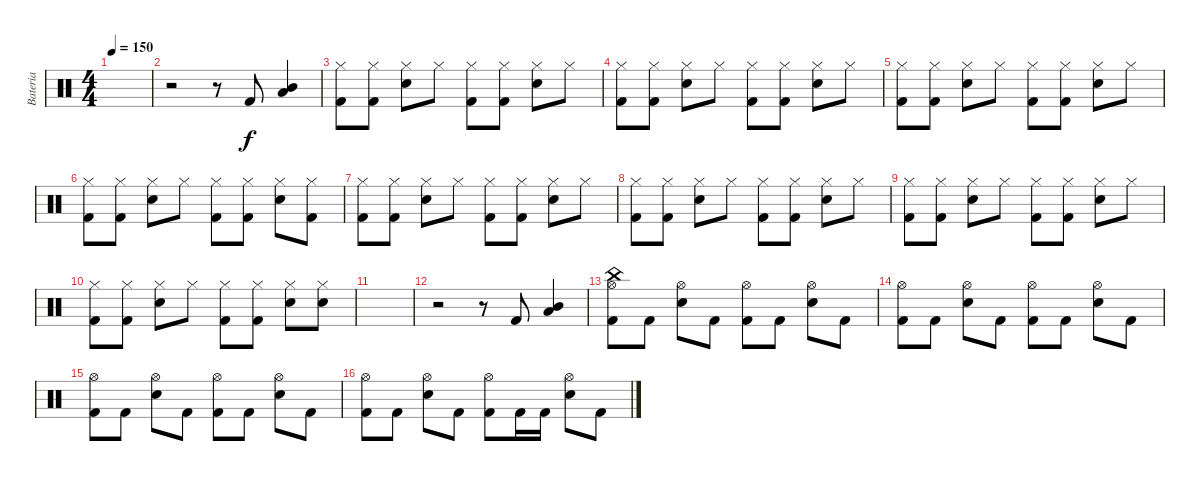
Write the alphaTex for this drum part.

\track ("Bateria" "Bateria") {instrument percussion}
\staff {score}
\articulation defaults
\ts (4 4)
\tempo 150
\clef neutral
\ks c
|
r.2 r.8 "Kick (hit) 2".8 ("Low Tom (hit)" "Mid Tom (hit)").4 |
("Kick (hit) 2" "Hi-Hat (closed)").8 ("Kick (hit) 2" "Hi-Hat (closed)").8 ("Electric Snare (hit)" "Hi-Hat (closed)").8 "Hi-Hat (closed)".8 ("Kick (hit) 2" "Hi-Hat (closed)").8 ("Kick (hit) 2" "Hi-Hat (closed)").8 ("Electric Snare (hit)" "Hi-Hat (closed)").8 "Hi-Hat (closed)".8 |
("Kick (hit) 2" "Hi-Hat (closed)").8 ("Kick (hit) 2" "Hi-Hat (closed)").8 ("Electric Snare (hit)" "Hi-Hat (closed)").8 "Hi-Hat (closed)".8 ("Kick (hit) 2" "Hi-Hat (closed)").8 ("Kick (hit) 2" "Hi-Hat (closed)").8 ("Electric Snare (hit)" "Hi-Hat (closed)").8 "Hi-Hat (closed)".8 |
("Kick (hit) 2" "Hi-Hat (closed)").8 ("Kick (hit) 2" "Hi-Hat (closed)").8 ("Electric Snare (hit)" "Hi-Hat (closed)").8 "Hi-Hat (closed)".8 ("Kick (hit) 2" "Hi-Hat (closed)").8 ("Kick (hit) 2" "Hi-Hat (closed)").8 ("Electric Snare (hit)" "Hi-Hat (closed)").8 "Hi-Hat (closed)".8 |
("Kick (hit) 2" "Hi-Hat (closed)").8 ("Kick (hit) 2" "Hi-Hat (closed)").8 ("Electric Snare (hit)" "Hi-Hat (closed)").8 "Hi-Hat (closed)".8 ("Kick (hit) 2" "Hi-Hat (closed)").8 ("Kick (hit) 2" "Hi-Hat (closed)").8 ("Electric Snare (hit)" "Hi-Hat (closed)").8 ("Kick (hit) 2" "Hi-Hat (closed)").8 |
("Kick (hit) 2" "Hi-Hat (closed)").8 ("Kick (hit) 2" "Hi-Hat (closed)").8 ("Electric Snare (hit)" "Hi-Hat (closed)").8 "Hi-Hat (closed)".8 ("Kick (hit) 2" "Hi-Hat (closed)").8 ("Kick (hit) 2" "Hi-Hat (closed)").8 ("Electric Snare (hit)" "Hi-Hat (closed)").8 "Hi-Hat (closed)".8 |
("Kick (hit) 2" "Hi-Hat (closed)").8 ("Kick (hit) 2" "Hi-Hat (closed)").8 ("Electric Snare (hit)" "Hi-Hat (closed)").8 "Hi-Hat (closed)".8 ("Kick (hit) 2" "Hi-Hat (closed)").8 ("Kick (hit) 2" "Hi-Hat (closed)").8 ("Electric Snare (hit)" "Hi-Hat (closed)").8 "Hi-Hat (closed)".8 |
("Kick (hit) 2" "Hi-Hat (closed)").8 ("Kick (hit) 2" "Hi-Hat (closed)").8 ("Electric Snare (hit)" "Hi-Hat (closed)").8 "Hi-Hat (closed)".8 ("Kick (hit) 2" "Hi-Hat (closed)").8 ("Kick (hit) 2" "Hi-Hat (closed)").8 ("Electric Snare (hit)" "Hi-Hat (closed)").8 "Hi-Hat (closed)".8 |
("Kick (hit) 2" "Hi-Hat (closed)").8 ("Kick (hit) 2" "Hi-Hat (closed)").8 ("Electric Snare (hit)" "Hi-Hat (closed)").8 "Hi-Hat (closed)".8 ("Kick (hit) 2" "Hi-Hat (closed)").8 ("Kick (hit) 2" "Hi-Hat (closed)").8 ("Electric Snare (hit)" "Hi-Hat (closed)").8 ("Electric Snare (hit)" "Hi-Hat (closed)").8 |
|
r.2 r.8 "Kick (hit) 2".8 ("Low Tom (hit)" "Mid Tom (hit)").4 |
("Kick (hit) 2" "China (hit)" "Hi-Hat (open)").8 "Kick (hit) 2".8 ("Electric Snare (hit)" "Hi-Hat (open)").8 "Kick (hit) 2".8 ("Kick (hit) 2" "Hi-Hat (open)").8 "Kick (hit) 2".8 ("Electric Snare (hit)" "Hi-Hat (open)").8 "Kick (hit) 2".8 |
("Kick (hit) 2" "Hi-Hat (open)").8 "Kick (hit) 2".8 ("Electric Snare (hit)" "Hi-Hat (open)").8 "Kick (hit) 2".8 ("Kick (hit) 2" "Hi-Hat (open)").8 "Kick (hit) 2".8 ("Electric Snare (hit)" "Hi-Hat (open)").8 "Kick (hit) 2".8 |
("Kick (hit) 2" "Hi-Hat (open)").8 "Kick (hit) 2".8 ("Electric Snare (hit)" "Hi-Hat (open)").8 "Kick (hit) 2".8 ("Kick (hit) 2" "Hi-Hat (open)").8 "Kick (hit) 2".8 ("Electric Snare (hit)" "Hi-Hat (open)").8 "Kick (hit) 2".8 |
("Kick (hit) 2" "Hi-Hat (open)").8 "Kick (hit) 2".8 ("Electric Snare (hit)" "Hi-Hat (open)").8 "Kick (hit) 2".8 ("Kick (hit) 2" "Hi-Hat (open)").8 "Kick (hit) 2".16 "Kick (hit) 2".16 ("Electric Snare (hit)" "Hi-Hat (open)").8 "Kick (hit) 2".8
